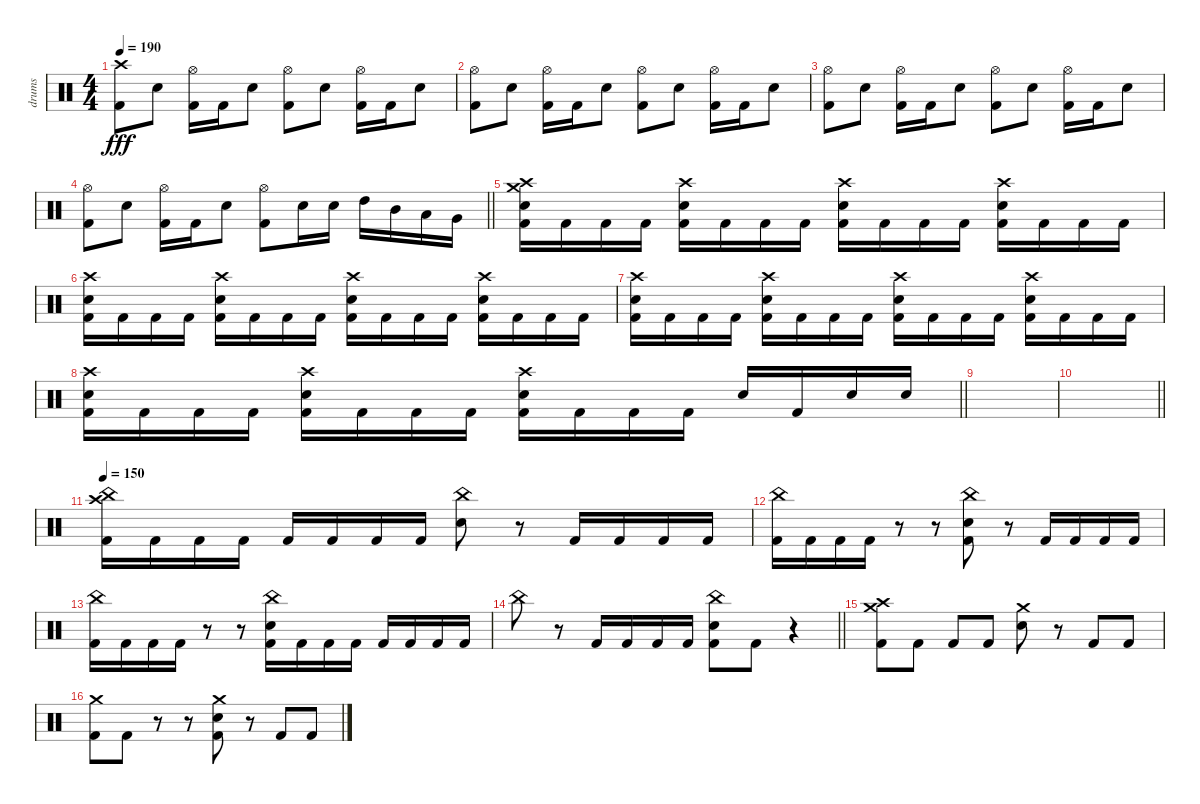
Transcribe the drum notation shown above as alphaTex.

\track ("drums" "drums") {instrument percussion}
\staff {score}
\articulation defaults
\ts (4 4)
\section ("" "")
\tempo 190
\clef neutral
\ks c
("Crash high (hit)" "Kick (hit) 2").8{dy fff} "Electric Snare (hit)".8 ("Hi-Hat (open)" "Kick (hit) 2").16 "Kick (hit) 2".16 "Electric Snare (hit)".8 ("Hi-Hat (open)" "Kick (hit) 2").8 "Electric Snare (hit)".8 ("Hi-Hat (open)" "Kick (hit) 2").16 "Kick (hit) 2".16 "Electric Snare (hit)".8 |
("Hi-Hat (open)" "Kick (hit) 2").8 "Electric Snare (hit)".8 ("Hi-Hat (open)" "Kick (hit) 2").16 "Kick (hit) 2".16 "Electric Snare (hit)".8 ("Hi-Hat (open)" "Kick (hit) 2").8 "Electric Snare (hit)".8 ("Hi-Hat (open)" "Kick (hit) 2").16 "Kick (hit) 2".16 "Electric Snare (hit)".8 |
("Hi-Hat (open)" "Kick (hit) 2").8 "Electric Snare (hit)".8 ("Hi-Hat (open)" "Kick (hit) 2").16 "Kick (hit) 2".16 "Electric Snare (hit)".8 ("Hi-Hat (open)" "Kick (hit) 2").8 "Electric Snare (hit)".8 ("Hi-Hat (open)" "Kick (hit) 2").16 "Kick (hit) 2".16 "Electric Snare (hit)".8 |
\barLineRight lightlight
("Hi-Hat (open)" "Kick (hit) 2").8 "Electric Snare (hit)".8 ("Hi-Hat (open)" "Kick (hit) 2").16 "Kick (hit) 2".16 "Electric Snare (hit)".8 ("Hi-Hat (open)" "Kick (hit) 2").8 "Electric Snare (hit)".16 "Electric Snare (hit)".16 "High Tom (hit)".16 "Mid Tom (hit)".16 "Low Tom (hit)".16 "Very Low Tom (hit)".16 |
("Crash high (hit)" "Crash medium (hit)" "Electric Snare (hit)" "Kick (hit) 2").16 "Kick (hit) 2".16 "Kick (hit) 2".16 "Kick (hit) 2".16 ("Crash high (hit)" "Electric Snare (hit)" "Kick (hit) 2").16 "Kick (hit) 2".16 "Kick (hit) 2".16 "Kick (hit) 2".16 ("Crash high (hit)" "Electric Snare (hit)" "Kick (hit) 2").16 "Kick (hit) 2".16 "Kick (hit) 2".16 "Kick (hit) 2".16 ("Crash high (hit)" "Electric Snare (hit)" "Kick (hit) 2").16 "Kick (hit) 2".16 "Kick (hit) 2".16 "Kick (hit) 2".16 |
("Crash high (hit)" "Electric Snare (hit)" "Kick (hit) 2").16 "Kick (hit) 2".16 "Kick (hit) 2".16 "Kick (hit) 2".16 ("Crash high (hit)" "Electric Snare (hit)" "Kick (hit) 2").16 "Kick (hit) 2".16 "Kick (hit) 2".16 "Kick (hit) 2".16 ("Crash high (hit)" "Electric Snare (hit)" "Kick (hit) 2").16 "Kick (hit) 2".16 "Kick (hit) 2".16 "Kick (hit) 2".16 ("Crash high (hit)" "Electric Snare (hit)" "Kick (hit) 2").16 "Kick (hit) 2".16 "Kick (hit) 2".16 "Kick (hit) 2".16 |
("Crash high (hit)" "Electric Snare (hit)" "Kick (hit) 2").16 "Kick (hit) 2".16 "Kick (hit) 2".16 "Kick (hit) 2".16 ("Crash high (hit)" "Electric Snare (hit)" "Kick (hit) 2").16 "Kick (hit) 2".16 "Kick (hit) 2".16 "Kick (hit) 2".16 ("Crash high (hit)" "Electric Snare (hit)" "Kick (hit) 2").16 "Kick (hit) 2".16 "Kick (hit) 2".16 "Kick (hit) 2".16 ("Crash high (hit)" "Electric Snare (hit)" "Kick (hit) 2").16 "Kick (hit) 2".16 "Kick (hit) 2".16 "Kick (hit) 2".16 |
\barLineRight lightlight
("Crash high (hit)" "Electric Snare (hit)" "Kick (hit) 2").16 "Kick (hit) 2".16 "Kick (hit) 2".16 "Kick (hit) 2".16 ("Crash high (hit)" "Electric Snare (hit)" "Kick (hit) 2").16 "Kick (hit) 2".16 "Kick (hit) 2".16 "Kick (hit) 2".16 ("Crash high (hit)" "Electric Snare (hit)" "Kick (hit) 2").16 "Kick (hit) 2".16 "Kick (hit) 2".16 "Kick (hit) 2".16 "Electric Snare (hit)".16 "Kick (hit) 2".16 "Electric Snare (hit)".16 "Electric Snare (hit)".16 |
|
\barLineRight lightlight
|
\section ("" "")
\tempo 150
("Crash high (hit)" "China (hit)" "Kick (hit) 2").16 "Kick (hit) 2".16 "Kick (hit) 2".16 "Kick (hit) 2".16 "Kick (hit) 2".16 "Kick (hit) 2".16 "Kick (hit) 2".16 "Kick (hit) 2".16 ("China (hit)" "Electric Snare (hit)").8 r.8 "Kick (hit) 2".16 "Kick (hit) 2".16 "Kick (hit) 2".16 "Kick (hit) 2".16 |
("China (hit)" "Kick (hit) 2").16 "Kick (hit) 2".16 "Kick (hit) 2".16 "Kick (hit) 2".16 r.8 r.8 ("China (hit)" "Electric Snare (hit)" "Kick (hit) 2").8 r.8 "Kick (hit) 2".16 "Kick (hit) 2".16 "Kick (hit) 2".16 "Kick (hit) 2".16 |
("China (hit)" "Kick (hit) 2").16 "Kick (hit) 2".16 "Kick (hit) 2".16 "Kick (hit) 2".16 r.8 r.8 ("China (hit)" "Electric Snare (hit)" "Kick (hit) 2").16 "Kick (hit) 2".16 "Kick (hit) 2".16 "Kick (hit) 2".16 "Kick (hit) 2".16 "Kick (hit) 2".16 "Kick (hit) 2".16 "Kick (hit) 2".16 |
\barLineRight lightlight "China (hit)".8
r.8 "Kick (hit) 2".16 "Kick (hit) 2".16 "Kick (hit) 2".16 "Kick (hit) 2".16 ("China (hit)" "Electric Snare (hit)" "Kick (hit) 2").8 "Kick (hit) 2".8 r.4 |
("Crash high (hit)" "Crash medium (hit)" "Kick (hit) 2").8 "Kick (hit) 2".8 "Kick (hit) 2".8 "Kick (hit) 2".8 ("Crash medium (hit)" "Electric Snare (hit)").8 r.8 "Kick (hit) 2".8 "Kick (hit) 2".8 |
("Crash medium (hit)" "Kick (hit) 2").8 "Kick (hit) 2".8 r.8 r.8 ("Crash medium (hit)" "Electric Snare (hit)" "Kick (hit) 2").8 r.8 "Kick (hit) 2".8 "Kick (hit) 2".8
